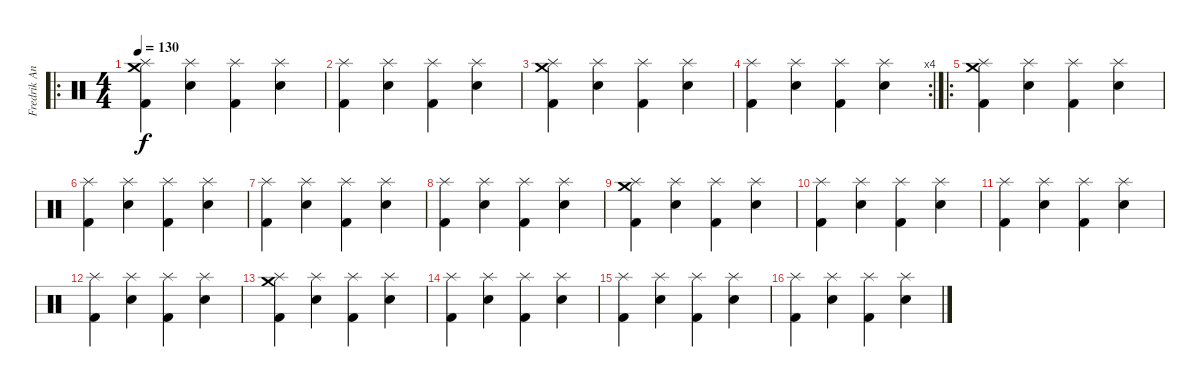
\track ("Fredrik Andersson" "Fredrik An") {instrument percussion}
\staff {score}
\articulation defaults
\ro
\ts (4 4)
\tempo 130
\clef neutral
\ks c
("Crash medium (hit)" "Splash (hit)" "Kick (hit) 2").4{dy f} ("Splash (hit)" "Electric Snare (hit)").4 ("Splash (hit)" "Kick (hit) 2").4 ("Splash (hit)" "Electric Snare (hit)").4 |
("Splash (hit)" "Kick (hit) 2").4 ("Splash (hit)" "Electric Snare (hit)").4 ("Splash (hit)" "Kick (hit) 2").4 ("Splash (hit)" "Electric Snare (hit)").4 |
("Crash medium (hit)" "Splash (hit)" "Kick (hit) 2").4 ("Splash (hit)" "Electric Snare (hit)").4 ("Splash (hit)" "Kick (hit) 2").4 ("Splash (hit)" "Electric Snare (hit)").4 |
\rc 4
("Splash (hit)" "Kick (hit) 2").4 ("Splash (hit)" "Electric Snare (hit)").4 ("Splash (hit)" "Kick (hit) 2").4 ("Splash (hit)" "Electric Snare (hit)").4 |
\ro
("Crash medium (hit)" "Splash (hit)" "Kick (hit) 2").4 ("Splash (hit)" "Electric Snare (hit)").4 ("Splash (hit)" "Kick (hit) 2").4 ("Splash (hit)" "Electric Snare (hit)").4 |
("Splash (hit)" "Kick (hit) 2").4 ("Splash (hit)" "Electric Snare (hit)").4 ("Splash (hit)" "Kick (hit) 2").4 ("Splash (hit)" "Electric Snare (hit)").4 |
("Splash (hit)" "Kick (hit) 2").4 ("Splash (hit)" "Electric Snare (hit)").4 ("Splash (hit)" "Kick (hit) 2").4 ("Splash (hit)" "Electric Snare (hit)").4 |
("Splash (hit)" "Kick (hit) 2").4 ("Splash (hit)" "Electric Snare (hit)").4 ("Splash (hit)" "Kick (hit) 2").4 ("Splash (hit)" "Electric Snare (hit)").4 |
("Crash medium (hit)" "Splash (hit)" "Kick (hit) 2").4 ("Splash (hit)" "Electric Snare (hit)").4 ("Splash (hit)" "Kick (hit) 2").4 ("Splash (hit)" "Electric Snare (hit)").4 |
("Splash (hit)" "Kick (hit) 2").4 ("Splash (hit)" "Electric Snare (hit)").4 ("Splash (hit)" "Kick (hit) 2").4 ("Splash (hit)" "Electric Snare (hit)").4 |
("Splash (hit)" "Kick (hit) 2").4 ("Splash (hit)" "Electric Snare (hit)").4 ("Splash (hit)" "Kick (hit) 2").4 ("Splash (hit)" "Electric Snare (hit)").4 |
("Splash (hit)" "Kick (hit) 2").4 ("Splash (hit)" "Electric Snare (hit)").4 ("Splash (hit)" "Kick (hit) 2").4 ("Splash (hit)" "Electric Snare (hit)").4 |
("Crash medium (hit)" "Splash (hit)" "Kick (hit) 2").4 ("Splash (hit)" "Electric Snare (hit)").4 ("Splash (hit)" "Kick (hit) 2").4 ("Splash (hit)" "Electric Snare (hit)").4 |
("Splash (hit)" "Kick (hit) 2").4 ("Splash (hit)" "Electric Snare (hit)").4 ("Splash (hit)" "Kick (hit) 2").4 ("Splash (hit)" "Electric Snare (hit)").4 |
("Splash (hit)" "Kick (hit) 2").4 ("Splash (hit)" "Electric Snare (hit)").4 ("Splash (hit)" "Kick (hit) 2").4 ("Splash (hit)" "Electric Snare (hit)").4 |
("Splash (hit)" "Kick (hit) 2").4 ("Splash (hit)" "Electric Snare (hit)").4 ("Splash (hit)" "Kick (hit) 2").4 ("Splash (hit)" "Electric Snare (hit)").4
